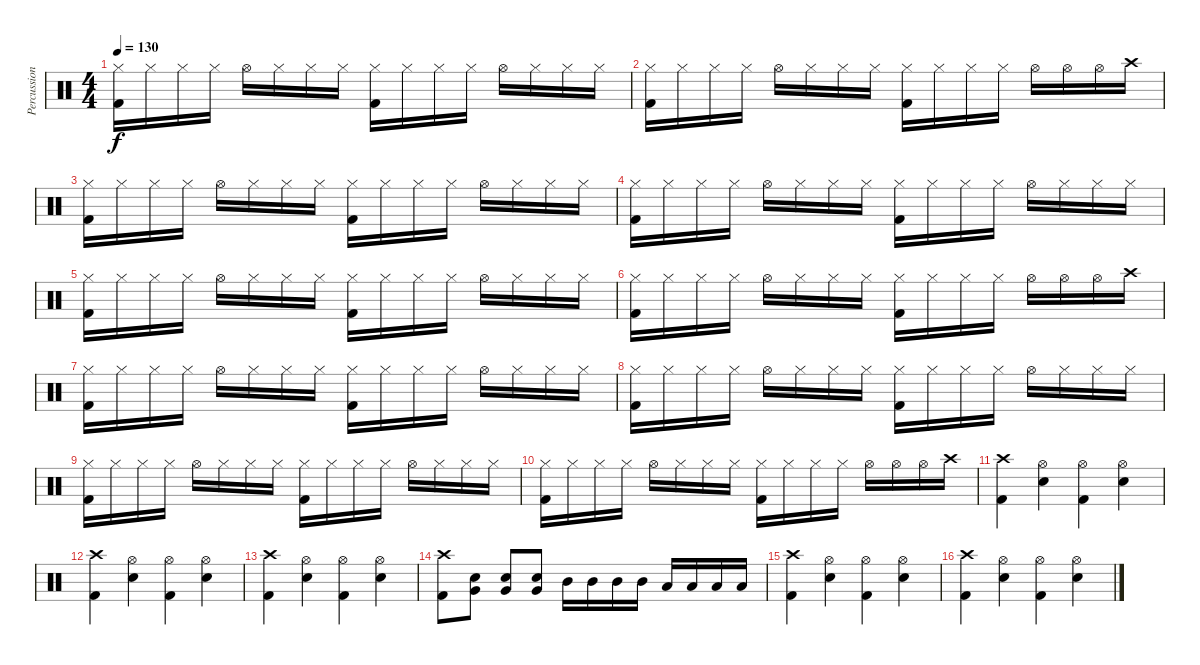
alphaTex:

\track ("Percussion" "Percussion") {instrument percussion}
\staff {score}
\articulation defaults
\ts (4 4)
\tempo 130
\clef neutral
\ks c
("Hi-Hat (closed)" "Kick (hit) 2").16{dy f} "Hi-Hat (closed)".16 "Hi-Hat (closed)".16 "Hi-Hat (closed)".16 "Hi-Hat (open)".16 "Hi-Hat (closed)".16 "Hi-Hat (closed)".16 "Hi-Hat (closed)".16 ("Hi-Hat (closed)" "Kick (hit) 2").16 "Hi-Hat (closed)".16 "Hi-Hat (closed)".16 "Hi-Hat (closed)".16 "Hi-Hat (open)".16 "Hi-Hat (closed)".16 "Hi-Hat (closed)".16 "Hi-Hat (closed)".16 |
("Hi-Hat (closed)" "Kick (hit) 2").16 "Hi-Hat (closed)".16 "Hi-Hat (closed)".16 "Hi-Hat (closed)".16 "Hi-Hat (open)".16 "Hi-Hat (closed)".16 "Hi-Hat (closed)".16 "Hi-Hat (closed)".16 ("Hi-Hat (closed)" "Kick (hit) 2").16 "Hi-Hat (closed)".16 "Hi-Hat (closed)".16 "Hi-Hat (closed)".16 "Hi-Hat (open)".16 "Hi-Hat (open)".16 "Hi-Hat (open)".16 "Crash high (hit)".16 |
("Hi-Hat (closed)" "Kick (hit) 2").16 "Hi-Hat (closed)".16 "Hi-Hat (closed)".16 "Hi-Hat (closed)".16 "Hi-Hat (open)".16 "Hi-Hat (closed)".16 "Hi-Hat (closed)".16 "Hi-Hat (closed)".16 ("Hi-Hat (closed)" "Kick (hit) 2").16 "Hi-Hat (closed)".16 "Hi-Hat (closed)".16 "Hi-Hat (closed)".16 "Hi-Hat (open)".16 "Hi-Hat (closed)".16 "Hi-Hat (closed)".16 "Hi-Hat (closed)".16 |
("Hi-Hat (closed)" "Kick (hit) 2").16 "Hi-Hat (closed)".16 "Hi-Hat (closed)".16 "Hi-Hat (closed)".16 "Hi-Hat (open)".16 "Hi-Hat (closed)".16 "Hi-Hat (closed)".16 "Hi-Hat (closed)".16 ("Hi-Hat (closed)" "Kick (hit) 2").16 "Hi-Hat (closed)".16 "Hi-Hat (closed)".16 "Hi-Hat (closed)".16 "Hi-Hat (open)".16 "Hi-Hat (closed)".16 "Hi-Hat (closed)".16 "Hi-Hat (closed)".16 |
("Hi-Hat (closed)" "Kick (hit) 2").16 "Hi-Hat (closed)".16 "Hi-Hat (closed)".16 "Hi-Hat (closed)".16 "Hi-Hat (open)".16 "Hi-Hat (closed)".16 "Hi-Hat (closed)".16 "Hi-Hat (closed)".16 ("Hi-Hat (closed)" "Kick (hit) 2").16 "Hi-Hat (closed)".16 "Hi-Hat (closed)".16 "Hi-Hat (closed)".16 "Hi-Hat (open)".16 "Hi-Hat (closed)".16 "Hi-Hat (closed)".16 "Hi-Hat (closed)".16 |
("Hi-Hat (closed)" "Kick (hit) 2").16 "Hi-Hat (closed)".16 "Hi-Hat (closed)".16 "Hi-Hat (closed)".16 "Hi-Hat (open)".16 "Hi-Hat (closed)".16 "Hi-Hat (closed)".16 "Hi-Hat (closed)".16 ("Hi-Hat (closed)" "Kick (hit) 2").16 "Hi-Hat (closed)".16 "Hi-Hat (closed)".16 "Hi-Hat (closed)".16 "Hi-Hat (open)".16 "Hi-Hat (open)".16 "Hi-Hat (open)".16 "Crash high (hit)".16 |
("Hi-Hat (closed)" "Kick (hit) 2").16 "Hi-Hat (closed)".16 "Hi-Hat (closed)".16 "Hi-Hat (closed)".16 "Hi-Hat (open)".16 "Hi-Hat (closed)".16 "Hi-Hat (closed)".16 "Hi-Hat (closed)".16 ("Hi-Hat (closed)" "Kick (hit) 2").16 "Hi-Hat (closed)".16 "Hi-Hat (closed)".16 "Hi-Hat (closed)".16 "Hi-Hat (open)".16 "Hi-Hat (closed)".16 "Hi-Hat (closed)".16 "Hi-Hat (closed)".16 |
("Hi-Hat (closed)" "Kick (hit) 2").16 "Hi-Hat (closed)".16 "Hi-Hat (closed)".16 "Hi-Hat (closed)".16 "Hi-Hat (open)".16 "Hi-Hat (closed)".16 "Hi-Hat (closed)".16 "Hi-Hat (closed)".16 ("Hi-Hat (closed)" "Kick (hit) 2").16 "Hi-Hat (closed)".16 "Hi-Hat (closed)".16 "Hi-Hat (closed)".16 "Hi-Hat (open)".16 "Hi-Hat (closed)".16 "Hi-Hat (closed)".16 "Hi-Hat (closed)".16 |
("Hi-Hat (closed)" "Kick (hit) 2").16 "Hi-Hat (closed)".16 "Hi-Hat (closed)".16 "Hi-Hat (closed)".16 "Hi-Hat (open)".16 "Hi-Hat (closed)".16 "Hi-Hat (closed)".16 "Hi-Hat (closed)".16 ("Hi-Hat (closed)" "Kick (hit) 2").16 "Hi-Hat (closed)".16 "Hi-Hat (closed)".16 "Hi-Hat (closed)".16 "Hi-Hat (open)".16 "Hi-Hat (closed)".16 "Hi-Hat (closed)".16 "Hi-Hat (closed)".16 |
("Hi-Hat (closed)" "Kick (hit) 2").16 "Hi-Hat (closed)".16 "Hi-Hat (closed)".16 "Hi-Hat (closed)".16 "Hi-Hat (open)".16 "Hi-Hat (closed)".16 "Hi-Hat (closed)".16 "Hi-Hat (closed)".16 ("Hi-Hat (closed)" "Kick (hit) 2").16 "Hi-Hat (closed)".16 "Hi-Hat (closed)".16 "Hi-Hat (closed)".16 "Hi-Hat (open)".16 "Hi-Hat (open)".16 "Hi-Hat (open)".16 "Crash high (hit)".16 |
("Crash high (hit)" "Kick (hit) 2").4 ("Hi-Hat (open)" "Snare (hit) 2").4 ("Hi-Hat (open)" "Kick (hit) 2").4 ("Hi-Hat (open)" "Snare (hit) 2").4 |
("Crash high (hit)" "Kick (hit) 2").4 ("Hi-Hat (open)" "Snare (hit) 2").4 ("Hi-Hat (open)" "Kick (hit) 2").4 ("Hi-Hat (open)" "Snare (hit) 2").4 |
("Crash high (hit)" "Kick (hit) 2").4 ("Hi-Hat (open)" "Snare (hit) 2").4 ("Hi-Hat (open)" "Kick (hit) 2").4 ("Hi-Hat (open)" "Snare (hit) 2").4 |
("Crash high (hit)" "Kick (hit) 2").8 ("Very Low Tom (hit)" "Snare (hit) 2").8 ("Very Low Tom (hit)" "Snare (hit) 2").8 ("Very Low Tom (hit)" "Snare (hit) 2").8 "Mid Tom (hit)".16 "Mid Tom (hit)".16 "Mid Tom (hit)".16 "Mid Tom (hit)".16 "Low Tom (hit)".16 "Low Tom (hit)".16 "Low Tom (hit)".16 "Low Tom (hit)".16 |
("Crash high (hit)" "Kick (hit) 2").4 ("Hi-Hat (open)" "Snare (hit) 2").4 ("Hi-Hat (open)" "Kick (hit) 2").4 ("Hi-Hat (open)" "Snare (hit) 2").4 |
("Crash high (hit)" "Kick (hit) 2").4 ("Hi-Hat (open)" "Snare (hit) 2").4 ("Hi-Hat (open)" "Kick (hit) 2").4 ("Hi-Hat (open)" "Snare (hit) 2").4
